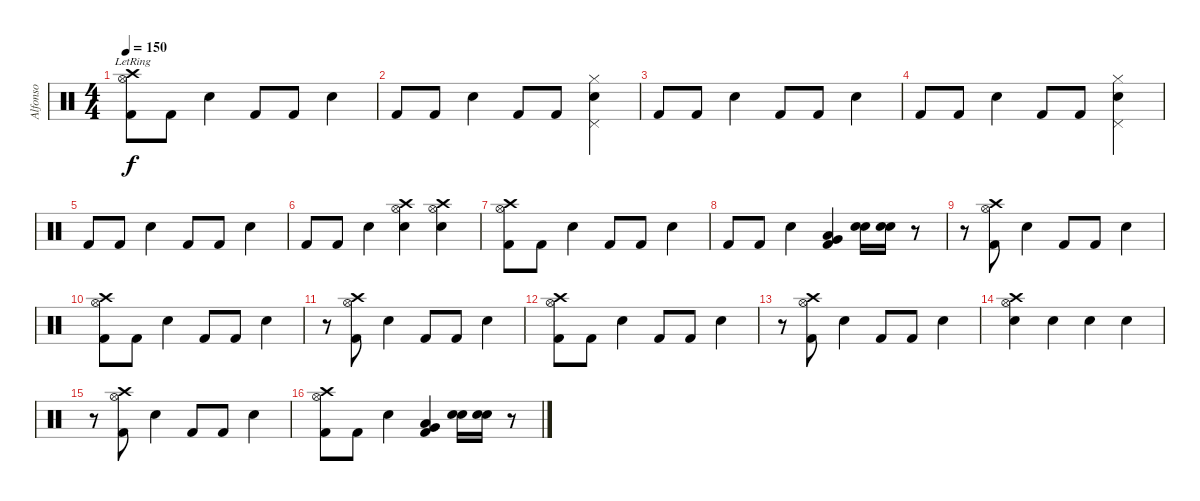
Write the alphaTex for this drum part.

\track ("Alfonso" "Alfonso") {instrument percussion}
\staff {score}
\articulation defaults
\ts (4 4)
\tempo 150
\clef neutral
\ks c
("Hi-Hat (open)"{lr} "Crash high (hit)"{lr} "Kick (hit) 2"{lr}).8{dy f} "Kick (hit) 2".8 "Electric Snare (hit)".4 "Kick (hit) 2".8 "Kick (hit) 2".8 "Electric Snare (hit)".4 |
"Kick (hit) 2".8 "Kick (hit) 2".8 "Electric Snare (hit)".4 "Kick (hit) 2".8 "Kick (hit) 2".8 ("Pedal Hi-Hat (hit)" "Hi-Hat (closed)" "Electric Snare (hit)").4 |
"Kick (hit) 2".8 "Kick (hit) 2".8 "Electric Snare (hit)".4 "Kick (hit) 2".8 "Kick (hit) 2".8 "Electric Snare (hit)".4 |
"Kick (hit) 2".8 "Kick (hit) 2".8 "Electric Snare (hit)".4 "Kick (hit) 2".8 "Kick (hit) 2".8 ("Pedal Hi-Hat (hit)" "Hi-Hat (closed)" "Electric Snare (hit)").4 |
"Kick (hit) 2".8 "Kick (hit) 2".8 "Electric Snare (hit)".4 "Kick (hit) 2".8 "Kick (hit) 2".8 "Electric Snare (hit)".4 |
"Kick (hit) 2".8 "Kick (hit) 2".8 "Electric Snare (hit)".4 ("Crash high (hit)" "Hi-Hat (open)" "Electric Snare (hit)").4 ("Crash high (hit)" "Hi-Hat (open)" "Electric Snare (hit)").4 |
("Crash high (hit)" "Hi-Hat (open)" "Kick (hit) 2").8 "Kick (hit) 2".8 "Electric Snare (hit)".4 "Kick (hit) 2".8 "Kick (hit) 2".8 "Electric Snare (hit)".4 |
"Kick (hit) 2".8 "Kick (hit) 2".8 "Electric Snare (hit)".4 ("Kick (hit) 2" "Very Low Tom (hit)" "Low Floor Tom (hit)").4 ("Snare (hit) 2" "Electric Snare (hit)").16 ("Snare (hit) 2" "Electric Snare (hit)").16 r.8 |
r.8 ("Crash high (hit)" "Hi-Hat (open)" "Kick (hit) 2").8 "Electric Snare (hit)".4 "Kick (hit) 2".8 "Kick (hit) 2".8 "Electric Snare (hit)".4 |
("Crash high (hit)" "Hi-Hat (open)" "Kick (hit) 2").8 "Kick (hit) 2".8 "Electric Snare (hit)".4 "Kick (hit) 2".8 "Kick (hit) 2".8 "Electric Snare (hit)".4 |
r.8 ("Hi-Hat (open)" "Crash high (hit)" "Kick (hit) 2").8 "Electric Snare (hit)".4 "Kick (hit) 2".8 "Kick (hit) 2".8 "Electric Snare (hit)".4 |
("Crash high (hit)" "Hi-Hat (open)" "Kick (hit) 2").8 "Kick (hit) 2".8 "Electric Snare (hit)".4 "Kick (hit) 2".8 "Kick (hit) 2".8 "Electric Snare (hit)".4 |
r.8 ("Crash high (hit)" "Hi-Hat (open)" "Kick (hit) 2").8 "Electric Snare (hit)".4 "Kick (hit) 2".8 "Kick (hit) 2".8 "Electric Snare (hit)".4 |
("Hi-Hat (open)" "Crash high (hit)" "Electric Snare (hit)").4 "Electric Snare (hit)".4 "Electric Snare (hit)".4 "Electric Snare (hit)".4 |
r.8 ("Crash high (hit)" "Hi-Hat (open)" "Kick (hit) 2").8 "Electric Snare (hit)".4 "Kick (hit) 2".8 "Kick (hit) 2".8 "Electric Snare (hit)".4 |
("Crash high (hit)" "Hi-Hat (open)" "Kick (hit) 2").8 "Kick (hit) 2".8 "Electric Snare (hit)".4 ("Kick (hit) 2" "Very Low Tom (hit)" "Low Floor Tom (hit)").4 ("Snare (hit) 2" "Electric Snare (hit)").16 ("Snare (hit) 2" "Electric Snare (hit)").16 r.8
